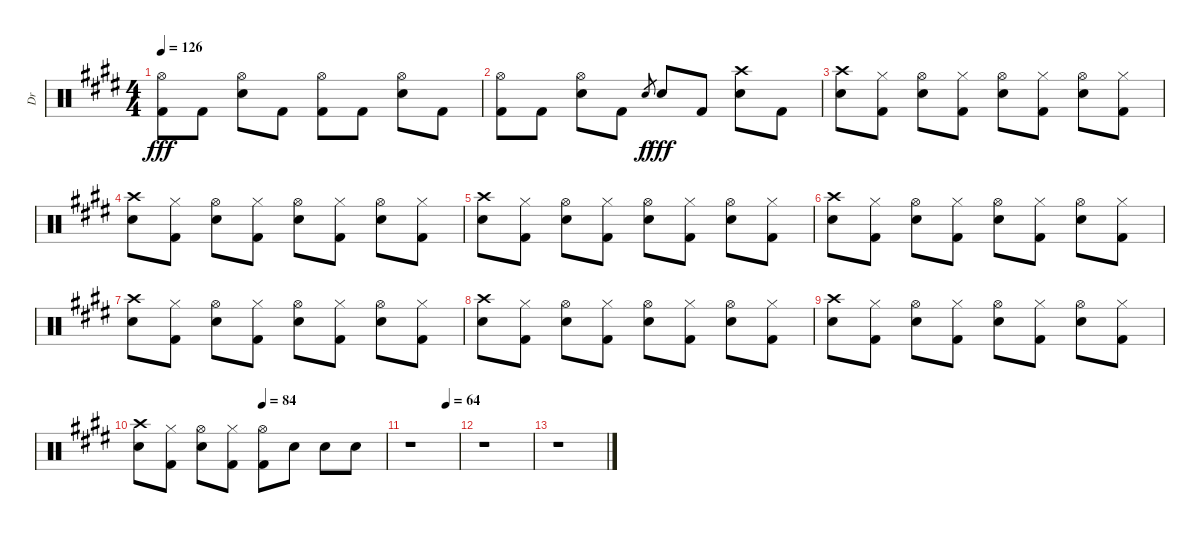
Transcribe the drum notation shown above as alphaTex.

\track ("Dr" "Dr") {instrument percussion}
\staff {score}
\articulation defaults
\ts (4 4)
\tempo 126
\clef neutral
\ks e
("Hi-Hat (open)" "Kick (hit) 2").8{dy fff} "Kick (hit) 2".8 ("Hi-Hat (open)" "Electric Snare (hit)").8 "Kick (hit) 2".8 ("Hi-Hat (open)" "Kick (hit) 2").8 "Kick (hit) 2".8 ("Hi-Hat (open)" "Electric Snare (hit)").8 "Kick (hit) 2".8 |
("Hi-Hat (open)" "Kick (hit) 2").8 "Kick (hit) 2".8 ("Hi-Hat (open)" "Electric Snare (hit)").8 "Kick (hit) 2".8 "Electric Snare (hit)".8{gr dy f} "Electric Snare (hit)".8{dy fff} "Kick (hit) 2".8 ("Crash high (hit)" "Electric Snare (hit)").8 "Kick (hit) 2".8 |
("Crash high (hit)" "Electric Snare (hit)").8 ("Hi-Hat (closed)" "Kick (hit) 2").8 ("Hi-Hat (open)" "Electric Snare (hit)").8 ("Hi-Hat (closed)" "Kick (hit) 2").8 ("Hi-Hat (open)" "Electric Snare (hit)").8 ("Hi-Hat (closed)" "Kick (hit) 2").8 ("Hi-Hat (open)" "Electric Snare (hit)").8 ("Hi-Hat (closed)" "Kick (hit) 2").8 |
("Crash high (hit)" "Electric Snare (hit)").8 ("Hi-Hat (closed)" "Kick (hit) 2").8 ("Hi-Hat (open)" "Electric Snare (hit)").8 ("Hi-Hat (closed)" "Kick (hit) 2").8 ("Hi-Hat (open)" "Electric Snare (hit)").8 ("Hi-Hat (closed)" "Kick (hit) 2").8 ("Hi-Hat (open)" "Electric Snare (hit)").8 ("Hi-Hat (closed)" "Kick (hit) 2").8 |
("Crash high (hit)" "Electric Snare (hit)").8 ("Hi-Hat (closed)" "Kick (hit) 2").8 ("Hi-Hat (open)" "Electric Snare (hit)").8 ("Hi-Hat (closed)" "Kick (hit) 2").8 ("Hi-Hat (open)" "Electric Snare (hit)").8 ("Hi-Hat (closed)" "Kick (hit) 2").8 ("Hi-Hat (open)" "Electric Snare (hit)").8 ("Hi-Hat (closed)" "Kick (hit) 2").8 |
("Crash high (hit)" "Electric Snare (hit)").8 ("Hi-Hat (closed)" "Kick (hit) 2").8 ("Hi-Hat (open)" "Electric Snare (hit)").8 ("Hi-Hat (closed)" "Kick (hit) 2").8 ("Hi-Hat (open)" "Electric Snare (hit)").8 ("Hi-Hat (closed)" "Kick (hit) 2").8 ("Hi-Hat (open)" "Electric Snare (hit)").8 ("Hi-Hat (closed)" "Kick (hit) 2").8 |
("Crash high (hit)" "Electric Snare (hit)").8 ("Hi-Hat (closed)" "Kick (hit) 2").8 ("Hi-Hat (open)" "Electric Snare (hit)").8 ("Hi-Hat (closed)" "Kick (hit) 2").8 ("Hi-Hat (open)" "Electric Snare (hit)").8 ("Hi-Hat (closed)" "Kick (hit) 2").8 ("Hi-Hat (open)" "Electric Snare (hit)").8 ("Hi-Hat (closed)" "Kick (hit) 2").8 |
("Crash high (hit)" "Electric Snare (hit)").8 ("Hi-Hat (closed)" "Kick (hit) 2").8 ("Hi-Hat (open)" "Electric Snare (hit)").8 ("Hi-Hat (closed)" "Kick (hit) 2").8 ("Hi-Hat (open)" "Electric Snare (hit)").8 ("Hi-Hat (closed)" "Kick (hit) 2").8 ("Hi-Hat (open)" "Electric Snare (hit)").8 ("Hi-Hat (closed)" "Kick (hit) 2").8 |
("Crash high (hit)" "Electric Snare (hit)").8 ("Hi-Hat (closed)" "Kick (hit) 2").8 ("Hi-Hat (open)" "Electric Snare (hit)").8 ("Hi-Hat (closed)" "Kick (hit) 2").8 ("Hi-Hat (open)" "Electric Snare (hit)").8 ("Hi-Hat (closed)" "Kick (hit) 2").8 ("Hi-Hat (open)" "Electric Snare (hit)").8 ("Hi-Hat (closed)" "Kick (hit) 2").8 |
\tempo (84 0.5)
("Crash high (hit)" "Electric Snare (hit)").8 ("Hi-Hat (closed)" "Kick (hit) 2").8 ("Hi-Hat (open)" "Electric Snare (hit)").8 ("Hi-Hat (closed)" "Kick (hit) 2").8 ("Hi-Hat (open)" "Kick (hit) 2").8 "Electric Snare (hit)".8 "Electric Snare (hit)".8 "Electric Snare (hit)".8 |
\tempo (64 0.75)
r.1 |
r.1 |
r.1
